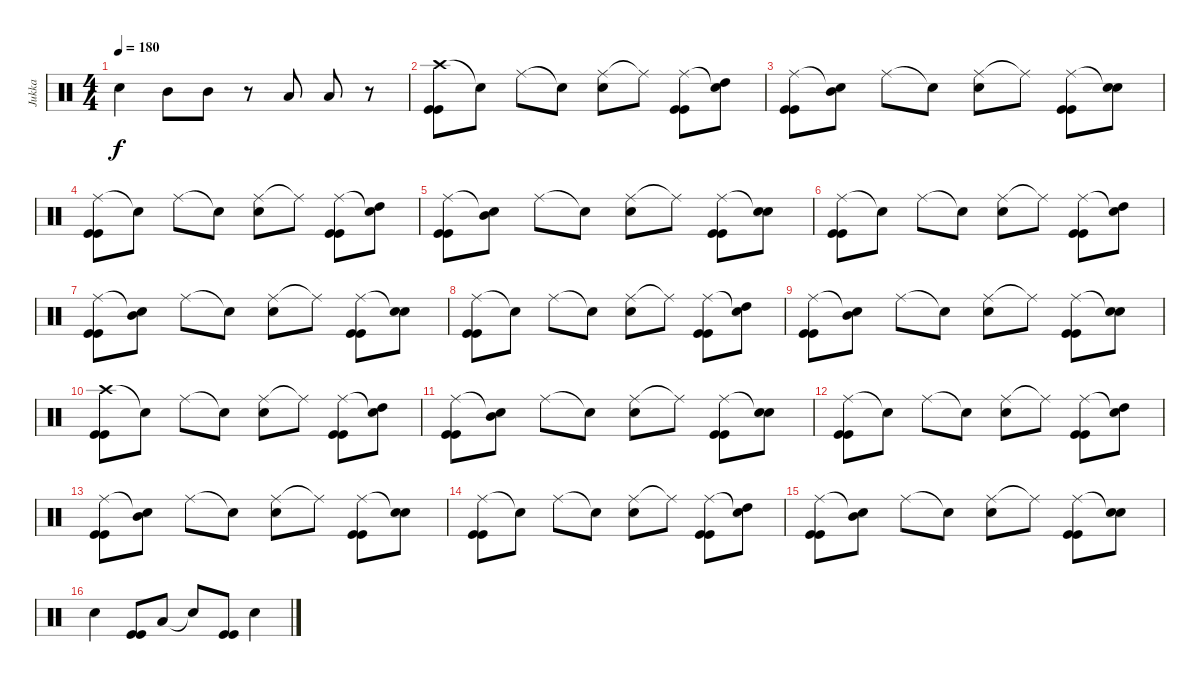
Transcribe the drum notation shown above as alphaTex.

\track ("Jukka" "Jukka") {instrument percussion}
\staff {score}
\articulation defaults
\ts (4 4)
\tempo 180
\clef neutral
\ks c "Snare (hit) 2".4{dy f} "Mid Tom (hit)".8 "Mid Tom (hit)".8
r.8 "Low Tom (hit)".8 "Low Tom (hit)".8 r.8 |
("Crash high (hit)" "Kick (hit)" "Kick (hit)").8 "Snare (hit)"{t}.8 "Ride (middle)".8 "Snare (hit)"{t}.8 ("Ride (middle)" "Snare (hit) 2").8 "Ride (middle)"{t}.8 ("Ride (middle)" "Kick (hit)" "Kick (hit)").8 ("Snare (hit)"{t} "High Tom (hit)").8 |
("Ride (middle)" "Kick (hit)" "Kick (hit)").8 ("Snare (hit)"{t} "Mid Tom (hit)").8 "Ride (middle)".8 "Snare (hit)"{t}.8 ("Ride (middle)" "Snare (hit) 2").8 "Ride (middle)"{t}.8 ("Ride (middle)" "Kick (hit)" "Kick (hit)").8 ("Snare (hit)"{t} "Snare (hit) 2").8 |
("Ride (middle)" "Kick (hit)" "Kick (hit)").8 "Snare (hit)"{t}.8 "Ride (middle)".8 "Snare (hit)"{t}.8 ("Ride (middle)" "Snare (hit) 2").8 "Ride (middle)"{t}.8 ("Ride (middle)" "Kick (hit)" "Kick (hit)").8 ("Snare (hit)"{t} "High Tom (hit)").8 |
("Ride (middle)" "Kick (hit)" "Kick (hit)").8 ("Snare (hit)"{t} "Mid Tom (hit)").8 "Ride (middle)".8 "Snare (hit)"{t}.8 ("Ride (middle)" "Snare (hit) 2").8 "Ride (middle)"{t}.8 ("Ride (middle)" "Kick (hit)" "Kick (hit)").8 ("Snare (hit)"{t} "Snare (hit) 2").8 |
("Ride (middle)" "Kick (hit)" "Kick (hit)").8 "Snare (hit)"{t}.8 "Ride (middle)".8 "Snare (hit)"{t}.8 ("Ride (middle)" "Snare (hit) 2").8 "Ride (middle)"{t}.8 ("Ride (middle)" "Kick (hit)" "Kick (hit)").8 ("Snare (hit)"{t} "High Tom (hit)").8 |
("Ride (middle)" "Kick (hit)" "Kick (hit)").8 ("Snare (hit)"{t} "Mid Tom (hit)").8 "Ride (middle)".8 "Snare (hit)"{t}.8 ("Ride (middle)" "Snare (hit) 2").8 "Ride (middle)"{t}.8 ("Ride (middle)" "Kick (hit)" "Kick (hit)").8 ("Snare (hit)"{t} "Snare (hit) 2").8 |
("Ride (middle)" "Kick (hit)" "Kick (hit)").8 "Snare (hit)"{t}.8 "Ride (middle)".8 "Snare (hit)"{t}.8 ("Ride (middle)" "Snare (hit) 2").8 "Ride (middle)"{t}.8 ("Ride (middle)" "Kick (hit)" "Kick (hit)").8 ("Snare (hit)"{t} "High Tom (hit)").8 |
("Ride (middle)" "Kick (hit)" "Kick (hit)").8 ("Snare (hit)"{t} "Mid Tom (hit)").8 "Ride (middle)".8 "Snare (hit)"{t}.8 ("Ride (middle)" "Snare (hit) 2").8 "Ride (middle)"{t}.8 ("Ride (middle)" "Kick (hit)" "Kick (hit)").8 ("Snare (hit)"{t} "Snare (hit) 2").8 |
("Crash high (hit)" "Kick (hit)" "Kick (hit)").8 "Snare (hit)"{t}.8 "Ride (middle)".8 "Snare (hit)"{t}.8 ("Ride (middle)" "Snare (hit) 2").8 "Ride (middle)"{t}.8 ("Ride (middle)" "Kick (hit)" "Kick (hit)").8 ("Snare (hit)"{t} "High Tom (hit)").8 |
("Ride (middle)" "Kick (hit)" "Kick (hit)").8 ("Snare (hit)"{t} "Mid Tom (hit)").8 "Ride (middle)".8 "Snare (hit)"{t}.8 ("Ride (middle)" "Snare (hit) 2").8 "Ride (middle)"{t}.8 ("Ride (middle)" "Kick (hit)" "Kick (hit)").8 ("Snare (hit)"{t} "Snare (hit) 2").8 |
("Ride (middle)" "Kick (hit)" "Kick (hit)").8 "Snare (hit)"{t}.8 "Ride (middle)".8 "Snare (hit)"{t}.8 ("Ride (middle)" "Snare (hit) 2").8 "Ride (middle)"{t}.8 ("Ride (middle)" "Kick (hit)" "Kick (hit)").8 ("Snare (hit)"{t} "High Tom (hit)").8 |
("Ride (middle)" "Kick (hit)" "Kick (hit)").8 ("Snare (hit)"{t} "Mid Tom (hit)").8 "Ride (middle)".8 "Snare (hit)"{t}.8 ("Ride (middle)" "Snare (hit) 2").8 "Ride (middle)"{t}.8 ("Ride (middle)" "Kick (hit)" "Kick (hit)").8 ("Snare (hit)"{t} "Snare (hit) 2").8 |
("Ride (middle)" "Kick (hit)" "Kick (hit)").8 "Snare (hit)"{t}.8 "Ride (middle)".8 "Snare (hit)"{t}.8 ("Ride (middle)" "Snare (hit) 2").8 "Ride (middle)"{t}.8 ("Ride (middle)" "Kick (hit)" "Kick (hit)").8 ("Snare (hit)"{t} "High Tom (hit)").8 |
("Ride (middle)" "Kick (hit)" "Kick (hit)").8 ("Snare (hit)"{t} "Mid Tom (hit)").8 "Ride (middle)".8 "Snare (hit)"{t}.8 ("Ride (middle)" "Snare (hit) 2").8 "Ride (middle)"{t}.8 ("Ride (middle)" "Kick (hit)" "Kick (hit)").8 ("Snare (hit)"{t} "Snare (hit) 2").8 |
"Snare (hit) 2".4 ("Kick (hit)" "Kick (hit)").8 "Low Tom (hit)".8 "Snare (hit)"{t}.8 ("Kick (hit)" "Kick (hit)").8 "Snare (hit) 2".4
